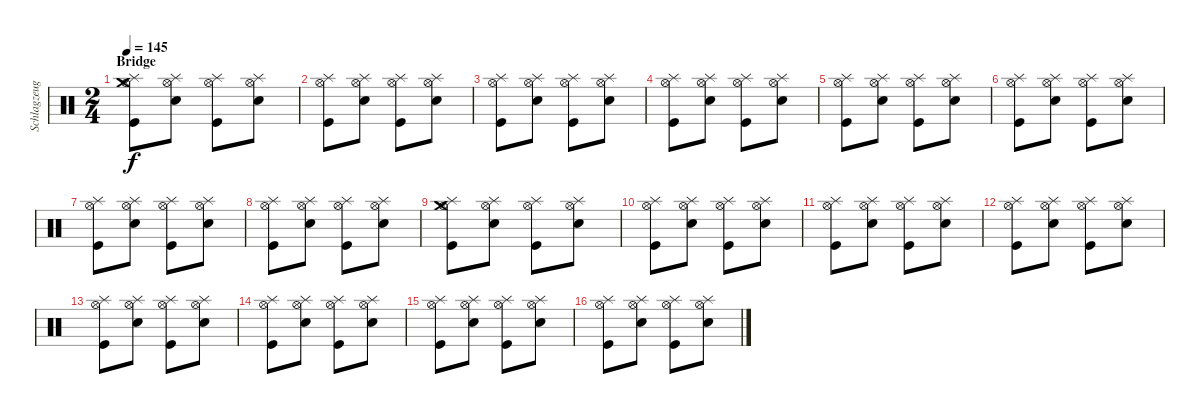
\track ("Schlagzeug - Bela B." "Schlagzeug") {instrument percussion}
\staff {score}
\articulation defaults
\ts (2 4)
\section ("" "Bridge")
\tempo 145
\clef neutral
\ks c
("Kick (hit)" "Hi-Hat (open)" "Splash (hit)" "Crash medium (hit)").8{dy f} ("Electric Snare (hit)" "Hi-Hat (open)" "Splash (hit)").8 ("Kick (hit)" "Hi-Hat (open)" "Splash (hit)").8 ("Electric Snare (hit)" "Hi-Hat (open)" "Splash (hit)").8 |
("Kick (hit)" "Hi-Hat (open)" "Splash (hit)").8 ("Electric Snare (hit)" "Hi-Hat (open)" "Splash (hit)").8 ("Kick (hit)" "Hi-Hat (open)" "Splash (hit)").8 ("Electric Snare (hit)" "Hi-Hat (open)" "Splash (hit)").8 |
("Kick (hit)" "Hi-Hat (open)" "Splash (hit)").8 ("Electric Snare (hit)" "Hi-Hat (open)" "Splash (hit)").8 ("Kick (hit)" "Hi-Hat (open)" "Splash (hit)").8 ("Electric Snare (hit)" "Hi-Hat (open)" "Splash (hit)").8 |
("Kick (hit)" "Hi-Hat (open)" "Splash (hit)").8 ("Electric Snare (hit)" "Hi-Hat (open)" "Splash (hit)").8 ("Kick (hit)" "Hi-Hat (open)" "Splash (hit)").8 ("Electric Snare (hit)" "Hi-Hat (open)" "Splash (hit)").8 |
("Kick (hit)" "Hi-Hat (open)" "Splash (hit)").8 ("Electric Snare (hit)" "Hi-Hat (open)" "Splash (hit)").8 ("Kick (hit)" "Hi-Hat (open)" "Splash (hit)").8 ("Electric Snare (hit)" "Hi-Hat (open)" "Splash (hit)").8 |
("Kick (hit)" "Hi-Hat (open)" "Splash (hit)").8 ("Electric Snare (hit)" "Hi-Hat (open)" "Splash (hit)").8 ("Kick (hit)" "Hi-Hat (open)" "Splash (hit)").8 ("Electric Snare (hit)" "Hi-Hat (open)" "Splash (hit)").8 |
("Kick (hit)" "Hi-Hat (open)" "Splash (hit)").8 ("Electric Snare (hit)" "Hi-Hat (open)" "Splash (hit)").8 ("Kick (hit)" "Hi-Hat (open)" "Splash (hit)").8 ("Electric Snare (hit)" "Hi-Hat (open)" "Splash (hit)").8 |
("Kick (hit)" "Hi-Hat (open)" "Splash (hit)").8 ("Electric Snare (hit)" "Hi-Hat (open)" "Splash (hit)").8 ("Kick (hit)" "Hi-Hat (open)" "Splash (hit)").8 ("Electric Snare (hit)" "Hi-Hat (open)" "Splash (hit)").8 |
("Kick (hit)" "Hi-Hat (open)" "Splash (hit)" "Crash medium (hit)").8 ("Electric Snare (hit)" "Hi-Hat (open)" "Splash (hit)").8 ("Kick (hit)" "Hi-Hat (open)" "Splash (hit)").8 ("Electric Snare (hit)" "Hi-Hat (open)" "Splash (hit)").8 |
("Kick (hit)" "Hi-Hat (open)" "Splash (hit)").8 ("Electric Snare (hit)" "Hi-Hat (open)" "Splash (hit)").8 ("Kick (hit)" "Hi-Hat (open)" "Splash (hit)").8 ("Electric Snare (hit)" "Hi-Hat (open)" "Splash (hit)").8 |
("Kick (hit)" "Hi-Hat (open)" "Splash (hit)").8 ("Electric Snare (hit)" "Hi-Hat (open)" "Splash (hit)").8 ("Kick (hit)" "Hi-Hat (open)" "Splash (hit)").8 ("Electric Snare (hit)" "Hi-Hat (open)" "Splash (hit)").8 |
("Kick (hit)" "Hi-Hat (open)" "Splash (hit)").8 ("Electric Snare (hit)" "Hi-Hat (open)" "Splash (hit)").8 ("Kick (hit)" "Hi-Hat (open)" "Splash (hit)").8 ("Electric Snare (hit)" "Hi-Hat (open)" "Splash (hit)").8 |
("Kick (hit)" "Hi-Hat (open)" "Splash (hit)").8 ("Electric Snare (hit)" "Hi-Hat (open)" "Splash (hit)").8 ("Kick (hit)" "Hi-Hat (open)" "Splash (hit)").8 ("Electric Snare (hit)" "Hi-Hat (open)" "Splash (hit)").8 |
("Kick (hit)" "Hi-Hat (open)" "Splash (hit)").8 ("Electric Snare (hit)" "Hi-Hat (open)" "Splash (hit)").8 ("Kick (hit)" "Hi-Hat (open)" "Splash (hit)").8 ("Electric Snare (hit)" "Hi-Hat (open)" "Splash (hit)").8 |
("Kick (hit)" "Hi-Hat (open)" "Splash (hit)").8 ("Electric Snare (hit)" "Hi-Hat (open)" "Splash (hit)").8 ("Kick (hit)" "Hi-Hat (open)" "Splash (hit)").8 ("Electric Snare (hit)" "Hi-Hat (open)" "Splash (hit)").8 |
("Kick (hit)" "Hi-Hat (open)" "Splash (hit)").8 ("Electric Snare (hit)" "Hi-Hat (open)" "Splash (hit)").8 ("Kick (hit)" "Hi-Hat (open)" "Splash (hit)").8 ("Electric Snare (hit)" "Hi-Hat (open)" "Splash (hit)").8
